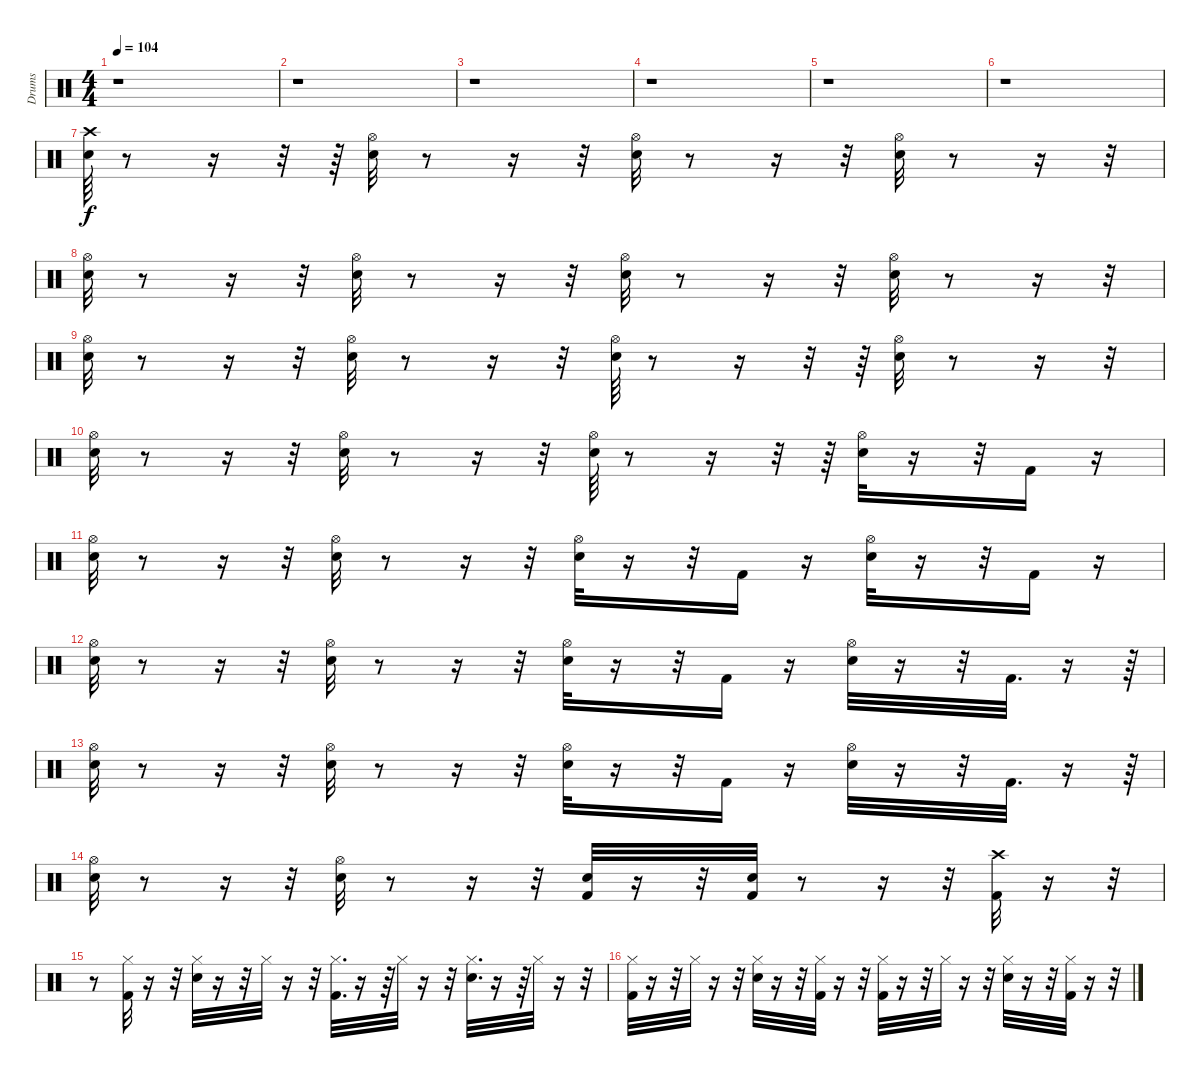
\track ("Drums" "Drums") {instrument percussion}
\staff {score}
\articulation defaults
\ts (4 4)
\tempo 104
\clef neutral
\ks c
r.1{dy f} |
r.1 |
r.1 |
r.1 |
r.1 |
r.1 |
("Crash high (hit)" "Snare (hit) 2").64 r.8 r.16 r.32 r.64 ("Hi-Hat (open)" "Snare (hit) 2").32 r.8 r.16 r.32 ("Hi-Hat (open)" "Snare (hit) 2").32 r.8 r.16 r.32 ("Hi-Hat (open)" "Snare (hit) 2").32 r.8 r.16 r.32 |
("Hi-Hat (open)" "Snare (hit) 2").32 r.8 r.16 r.32 ("Hi-Hat (open)" "Snare (hit) 2").32 r.8 r.16 r.32 ("Hi-Hat (open)" "Snare (hit) 2").32 r.8 r.16 r.32 ("Hi-Hat (open)" "Snare (hit) 2").32 r.8 r.16 r.32 |
("Hi-Hat (open)" "Snare (hit) 2").32 r.8 r.16 r.32 ("Hi-Hat (open)" "Snare (hit) 2").32 r.8 r.16 r.32 ("Hi-Hat (open)" "Snare (hit) 2").64 r.8 r.16 r.32 r.64 ("Hi-Hat (open)" "Snare (hit) 2").32 r.8 r.16 r.32 |
("Hi-Hat (open)" "Snare (hit) 2").32 r.8 r.16 r.32 ("Hi-Hat (open)" "Snare (hit) 2").32 r.8 r.16 r.32 ("Hi-Hat (open)" "Snare (hit) 2").64 r.8 r.16 r.32 r.64 ("Hi-Hat (open)" "Snare (hit) 2").32 r.16 r.32 "Kick (hit) 2".16 r.16 |
("Hi-Hat (open)" "Snare (hit) 2").32 r.8 r.16 r.32 ("Hi-Hat (open)" "Snare (hit) 2").32 r.8 r.16 r.32 ("Hi-Hat (open)" "Snare (hit) 2").32 r.16 r.32 "Kick (hit) 2".16 r.16 ("Hi-Hat (open)" "Snare (hit) 2").32 r.16 r.32 "Kick (hit) 2".16 r.16 |
("Hi-Hat (open)" "Snare (hit) 2").32 r.8 r.16 r.32 ("Hi-Hat (open)" "Snare (hit) 2").32 r.8 r.16 r.32 ("Hi-Hat (open)" "Snare (hit) 2").32 r.16 r.32 "Kick (hit) 2".16 r.16 ("Hi-Hat (open)" "Snare (hit) 2").32 r.16 r.32 "Kick (hit) 2".32{d} r.16 r.64 |
("Hi-Hat (open)" "Snare (hit) 2").32 r.8 r.16 r.32 ("Hi-Hat (open)" "Snare (hit) 2").32 r.8 r.16 r.32 ("Hi-Hat (open)" "Snare (hit) 2").32 r.16 r.32 "Kick (hit) 2".16 r.16 ("Hi-Hat (open)" "Snare (hit) 2").32 r.16 r.32 "Kick (hit) 2".32{d} r.16 r.64 |
("Hi-Hat (open)" "Snare (hit) 2").32 r.8 r.16 r.32 ("Hi-Hat (open)" "Snare (hit) 2").32 r.8 r.16 r.32 ("Kick (hit) 2" "Snare (hit) 2").32 r.16 r.32 ("Kick (hit) 2" "Snare (hit) 2").32 r.8 r.16 r.32 ("Crash high (hit)" "Kick (hit) 2").32 r.16 r.32 |
r.8 ("Hi-Hat (closed)" "Kick (hit) 2").32 r.16 r.32 ("Hi-Hat (closed)" "Snare (hit) 2").32 r.16 r.32 "Hi-Hat (closed)".32 r.16 r.32 ("Hi-Hat (closed)" "Kick (hit) 2").32{d} r.16 r.64 "Hi-Hat (closed)".32 r.16 r.32 ("Hi-Hat (closed)" "Snare (hit) 2").32{d} r.16 r.64 "Hi-Hat (closed)".32 r.16 r.32 |
("Hi-Hat (closed)" "Kick (hit) 2").32 r.16 r.32 "Hi-Hat (closed)".32 r.16 r.32 ("Hi-Hat (closed)" "Snare (hit) 2").32 r.16 r.32 ("Hi-Hat (closed)" "Kick (hit) 2").32 r.16 r.32 ("Hi-Hat (closed)" "Kick (hit) 2").32 r.16 r.32 "Hi-Hat (closed)".32 r.16 r.32 ("Hi-Hat (closed)" "Snare (hit) 2").32 r.16 r.32 ("Hi-Hat (closed)" "Kick (hit) 2").32 r.16 r.32
